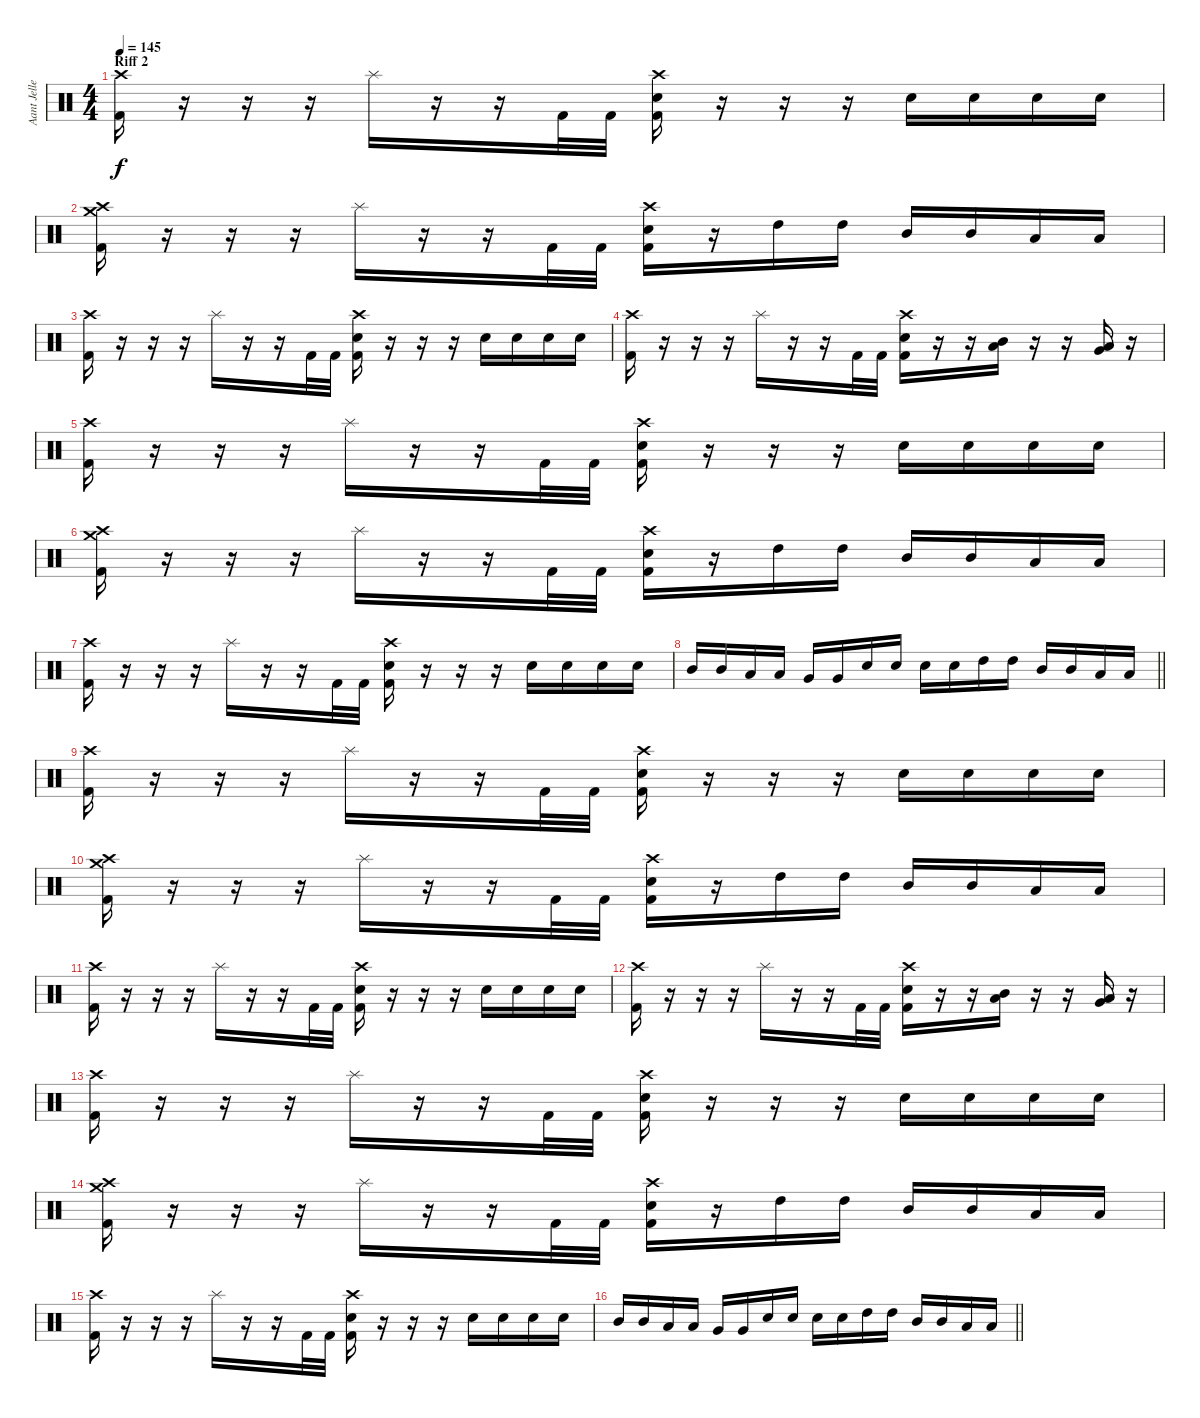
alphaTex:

\track ("Aant Jelle" "Aant Jelle") {instrument percussion}
\staff {score}
\articulation defaults
\ts (4 4)
\section ("" "Riff 2")
\tempo 145
\clef neutral
\ks c
("Crash high (hit)" "Kick (hit) 2").16{dy f} r.16 r.16 r.16 "Splash (hit)".16 r.16 r.16 "Kick (hit) 2".32 "Kick (hit) 2".32 ("Crash high (hit)" "Electric Snare (hit)" "Kick (hit) 2").16 r.16 r.16 r.16 "Electric Snare (hit)".16 "Electric Snare (hit)".16 "Electric Snare (hit)".16 "Electric Snare (hit)".16 |
("Crash medium (hit)" "Crash high (hit)" "Kick (hit) 2").16 r.16 r.16 r.16 "Splash (hit)".16 r.16 r.16 "Kick (hit) 2".32 "Kick (hit) 2".32 ("Crash high (hit)" "Electric Snare (hit)" "Kick (hit) 2").16 r.16 "High Tom (hit)".16 "High Tom (hit)".16 "Mid Tom (hit)".16 "Mid Tom (hit)".16 "Low Tom (hit)".16 "Low Tom (hit)".16 |
("Crash high (hit)" "Kick (hit) 2").16 r.16 r.16 r.16 "Splash (hit)".16 r.16 r.16 "Kick (hit) 2".32 "Kick (hit) 2".32 ("Crash high (hit)" "Electric Snare (hit)" "Kick (hit) 2").16 r.16 r.16 r.16 "Electric Snare (hit)".16 "Electric Snare (hit)".16 "Electric Snare (hit)".16 "Electric Snare (hit)".16 |
("Crash high (hit)" "Kick (hit) 2").16 r.16 r.16 r.16 "Splash (hit)".16 r.16 r.16 "Kick (hit) 2".32 "Kick (hit) 2".32 ("Crash high (hit)" "Electric Snare (hit)" "Kick (hit) 2").16 r.16 r.16 ("Mid Tom (hit)" "Low Tom (hit)").16 r.16 r.16 ("Low Tom (hit)" "Very Low Tom (hit)").16 r.16 |
("Crash high (hit)" "Kick (hit) 2").16 r.16 r.16 r.16 "Splash (hit)".16 r.16 r.16 "Kick (hit) 2".32 "Kick (hit) 2".32 ("Crash high (hit)" "Electric Snare (hit)" "Kick (hit) 2").16 r.16 r.16 r.16 "Electric Snare (hit)".16 "Electric Snare (hit)".16 "Electric Snare (hit)".16 "Electric Snare (hit)".16 |
("Crash medium (hit)" "Crash high (hit)" "Kick (hit) 2").16 r.16 r.16 r.16 "Splash (hit)".16 r.16 r.16 "Kick (hit) 2".32 "Kick (hit) 2".32 ("Crash high (hit)" "Electric Snare (hit)" "Kick (hit) 2").16 r.16 "High Tom (hit)".16 "High Tom (hit)".16 "Mid Tom (hit)".16 "Mid Tom (hit)".16 "Low Tom (hit)".16 "Low Tom (hit)".16 |
("Crash high (hit)" "Kick (hit) 2").16 r.16 r.16 r.16 "Splash (hit)".16 r.16 r.16 "Kick (hit) 2".32 "Kick (hit) 2".32 ("Crash high (hit)" "Electric Snare (hit)" "Kick (hit) 2").16 r.16 r.16 r.16 "Electric Snare (hit)".16 "Electric Snare (hit)".16 "Electric Snare (hit)".16 "Electric Snare (hit)".16 |
\barLineRight lightlight "Mid Tom (hit)".16 "Mid Tom (hit)".16 "Low Tom (hit)".16 "Low Tom (hit)".16 "Very Low Tom (hit)".16 "Very Low Tom (hit)".16 "Electric Snare (hit)".16 "Electric Snare (hit)".16 "Electric Snare (hit)".16 "Electric Snare (hit)".16 "High Tom (hit)".16 "High Tom (hit)".16 "Mid Tom (hit)".16 "Mid Tom (hit)".16 "Low Tom (hit)".16 "Low Tom (hit)".16
|
("Crash high (hit)" "Kick (hit) 2").16 r.16 r.16 r.16 "Splash (hit)".16 r.16 r.16 "Kick (hit) 2".32 "Kick (hit) 2".32 ("Crash high (hit)" "Electric Snare (hit)" "Kick (hit) 2").16 r.16 r.16 r.16 "Electric Snare (hit)".16 "Electric Snare (hit)".16 "Electric Snare (hit)".16 "Electric Snare (hit)".16 |
("Crash medium (hit)" "Crash high (hit)" "Kick (hit) 2").16 r.16 r.16 r.16 "Splash (hit)".16 r.16 r.16 "Kick (hit) 2".32 "Kick (hit) 2".32 ("Crash high (hit)" "Electric Snare (hit)" "Kick (hit) 2").16 r.16 "High Tom (hit)".16 "High Tom (hit)".16 "Mid Tom (hit)".16 "Mid Tom (hit)".16 "Low Tom (hit)".16 "Low Tom (hit)".16 |
("Crash high (hit)" "Kick (hit) 2").16 r.16 r.16 r.16 "Splash (hit)".16 r.16 r.16 "Kick (hit) 2".32 "Kick (hit) 2".32 ("Crash high (hit)" "Electric Snare (hit)" "Kick (hit) 2").16 r.16 r.16 r.16 "Electric Snare (hit)".16 "Electric Snare (hit)".16 "Electric Snare (hit)".16 "Electric Snare (hit)".16 |
("Crash high (hit)" "Kick (hit) 2").16 r.16 r.16 r.16 "Splash (hit)".16 r.16 r.16 "Kick (hit) 2".32 "Kick (hit) 2".32 ("Crash high (hit)" "Electric Snare (hit)" "Kick (hit) 2").16 r.16 r.16 ("Mid Tom (hit)" "Low Tom (hit)").16 r.16 r.16 ("Low Tom (hit)" "Very Low Tom (hit)").16 r.16 |
("Crash high (hit)" "Kick (hit) 2").16 r.16 r.16 r.16 "Splash (hit)".16 r.16 r.16 "Kick (hit) 2".32 "Kick (hit) 2".32 ("Crash high (hit)" "Electric Snare (hit)" "Kick (hit) 2").16 r.16 r.16 r.16 "Electric Snare (hit)".16 "Electric Snare (hit)".16 "Electric Snare (hit)".16 "Electric Snare (hit)".16 |
("Crash medium (hit)" "Crash high (hit)" "Kick (hit) 2").16 r.16 r.16 r.16 "Splash (hit)".16 r.16 r.16 "Kick (hit) 2".32 "Kick (hit) 2".32 ("Crash high (hit)" "Electric Snare (hit)" "Kick (hit) 2").16 r.16 "High Tom (hit)".16 "High Tom (hit)".16 "Mid Tom (hit)".16 "Mid Tom (hit)".16 "Low Tom (hit)".16 "Low Tom (hit)".16 |
("Crash high (hit)" "Kick (hit) 2").16 r.16 r.16 r.16 "Splash (hit)".16 r.16 r.16 "Kick (hit) 2".32 "Kick (hit) 2".32 ("Crash high (hit)" "Electric Snare (hit)" "Kick (hit) 2").16 r.16 r.16 r.16 "Electric Snare (hit)".16 "Electric Snare (hit)".16 "Electric Snare (hit)".16 "Electric Snare (hit)".16 |
\barLineRight lightlight "Mid Tom (hit)".16 "Mid Tom (hit)".16 "Low Tom (hit)".16 "Low Tom (hit)".16 "Very Low Tom (hit)".16 "Very Low Tom (hit)".16 "Electric Snare (hit)".16 "Electric Snare (hit)".16 "Electric Snare (hit)".16 "Electric Snare (hit)".16 "High Tom (hit)".16 "High Tom (hit)".16 "Mid Tom (hit)".16 "Mid Tom (hit)".16 "Low Tom (hit)".16 "Low Tom (hit)".16
